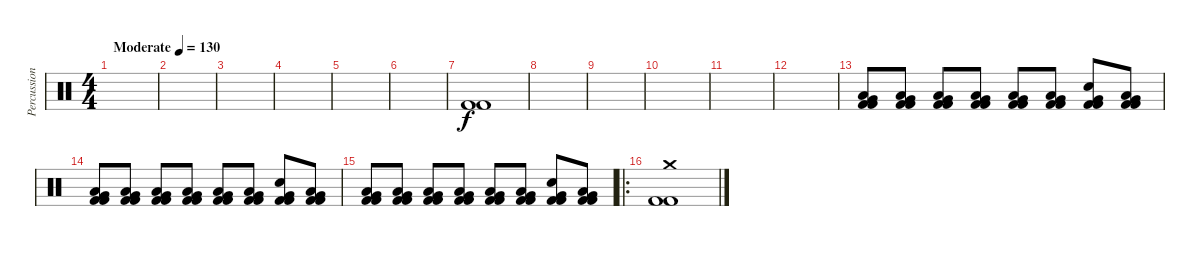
\track ("Percussion" "Percussion") {instrument percussion}
\staff {score}
\articulation defaults
\ts (4 4)
\tempo (130 "Moderate")
\clef neutral
\ks c
|
|
|
|
|
|
("Kick (hit) 2" "Kick (hit) 2").1 |
|
|
|
|
|
("Low Floor Tom (hit)" "Very Low Tom (hit)" "Kick (hit) 2" "Kick (hit) 2").8 ("Low Floor Tom (hit)" "Very Low Tom (hit)" "Kick (hit) 2" "Kick (hit) 2").8 ("Low Floor Tom (hit)" "Very Low Tom (hit)" "Kick (hit) 2" "Kick (hit) 2").8 ("Low Floor Tom (hit)" "Very Low Tom (hit)" "Kick (hit) 2" "Kick (hit) 2").8 ("Low Floor Tom (hit)" "Very Low Tom (hit)" "Kick (hit) 2" "Kick (hit) 2").8 ("Low Floor Tom (hit)" "Very Low Tom (hit)" "Kick (hit) 2" "Kick (hit) 2").8 ("Snare (hit)" "Very Low Tom (hit)" "Kick (hit) 2" "Kick (hit) 2").8 ("Low Floor Tom (hit)" "Very Low Tom (hit)" "Kick (hit) 2" "Kick (hit) 2").8 |
("Low Floor Tom (hit)" "Very Low Tom (hit)" "Kick (hit) 2" "Kick (hit) 2").8 ("Low Floor Tom (hit)" "Very Low Tom (hit)" "Kick (hit) 2" "Kick (hit) 2").8 ("Low Floor Tom (hit)" "Very Low Tom (hit)" "Kick (hit) 2" "Kick (hit) 2").8 ("Low Floor Tom (hit)" "Very Low Tom (hit)" "Kick (hit) 2" "Kick (hit) 2").8 ("Low Floor Tom (hit)" "Very Low Tom (hit)" "Kick (hit) 2" "Kick (hit) 2").8 ("Low Floor Tom (hit)" "Very Low Tom (hit)" "Kick (hit) 2" "Kick (hit) 2").8 ("Snare (hit)" "Very Low Tom (hit)" "Kick (hit) 2" "Kick (hit) 2").8 ("Low Floor Tom (hit)" "Very Low Tom (hit)" "Kick (hit) 2" "Kick (hit) 2").8 |
("Low Floor Tom (hit)" "Very Low Tom (hit)" "Kick (hit) 2" "Kick (hit) 2").8 ("Low Floor Tom (hit)" "Very Low Tom (hit)" "Kick (hit) 2" "Kick (hit) 2").8 ("Low Floor Tom (hit)" "Very Low Tom (hit)" "Kick (hit) 2" "Kick (hit) 2").8 ("Low Floor Tom (hit)" "Very Low Tom (hit)" "Kick (hit) 2" "Kick (hit) 2").8 ("Low Floor Tom (hit)" "Very Low Tom (hit)" "Kick (hit) 2" "Kick (hit) 2").8 ("Low Floor Tom (hit)" "Very Low Tom (hit)" "Kick (hit) 2" "Kick (hit) 2").8 ("Snare (hit)" "Very Low Tom (hit)" "Kick (hit) 2" "Kick (hit) 2").8 ("Low Floor Tom (hit)" "Very Low Tom (hit)" "Kick (hit) 2" "Kick (hit) 2").8 |
\ro
("Crash medium (hit)" "Kick (hit) 2" "Kick (hit) 2").1
